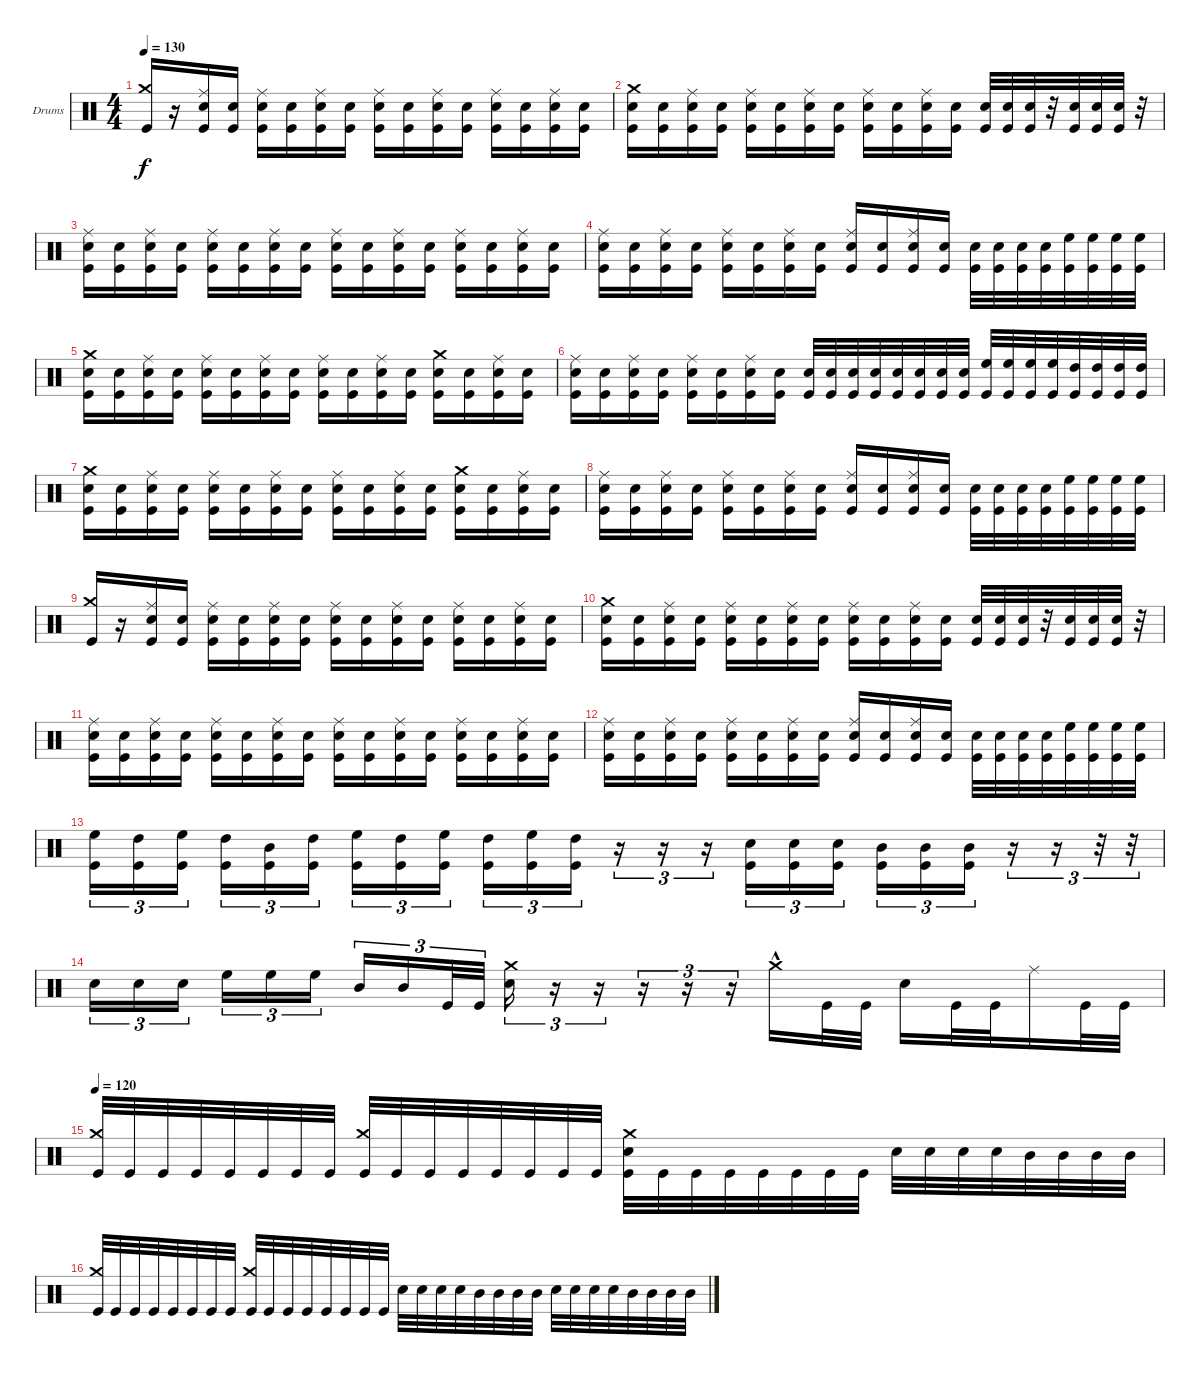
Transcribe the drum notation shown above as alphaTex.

\defaultSystemsLayout 4
\bracketExtendMode groupsimilarinstruments
\firstSystemTrackNameOrientation horizontal
\otherSystemsTrackNameOrientation horizontal
\track ("Drumkit" "Drums") {instrument percussion}
\staff {score}
\articulation defaults
\ts (4 4)
\tempo 130
\clef neutral
\scale
0.474178
\ks c
("Crash medium (hit)" "Kick (hit)").16{dy f beam invert} r.16 ("Kick (hit)" "Snare (hit) 2" "Ride (middle)").16 ("Kick (hit)" "Snare (hit) 2").16 ("Ride (middle)" "Snare (hit) 2" "Kick (hit)").16 ("Snare (hit) 2" "Kick (hit)").16 ("Snare (hit) 2" "Ride (middle)" "Kick (hit)").16 ("Snare (hit) 2" "Kick (hit)").16 ("Ride (middle)" "Snare (hit) 2" "Kick (hit)").16 ("Snare (hit) 2" "Kick (hit)").16 ("Snare (hit) 2" "Ride (middle)" "Kick (hit)").16 ("Snare (hit) 2" "Kick (hit)").16 ("Ride (middle)" "Snare (hit) 2" "Kick (hit)").16 ("Snare (hit) 2" "Kick (hit)").16 ("Snare (hit) 2" "Ride (middle)" "Kick (hit)").16 ("Snare (hit) 2" "Kick (hit)").16 |
\scale
0.262911 ("Snare (hit) 2" "Kick (hit)" "Crash medium (hit)").16 ("Snare (hit) 2" "Kick (hit)").16 ("Snare (hit) 2" "Ride (middle)" "Kick (hit)").16 ("Snare (hit) 2" "Kick (hit)").16 ("Ride (middle)" "Snare (hit) 2" "Kick (hit)").16 ("Snare (hit) 2" "Kick (hit)").16 ("Snare (hit) 2" "Ride (middle)" "Kick (hit)").16 ("Snare (hit) 2" "Kick (hit)").16 ("Ride (middle)" "Snare (hit) 2" "Kick (hit)").16 ("Snare (hit) 2" "Kick (hit)").16 ("Snare (hit) 2" "Ride (middle)" "Kick (hit)").16 ("Snare (hit) 2" "Kick (hit)").16 ("Snare (hit) 2" "Kick (hit)").32 ("Snare (hit) 2" "Kick (hit)").32 ("Snare (hit) 2" "Kick (hit)").32 r.32 ("Kick (hit)" "Snare (hit) 2").32 ("Kick (hit)" "Snare (hit) 2").32 ("Kick (hit)" "Snare (hit) 2").32 r.32 |
\scale
0.262911 ("Ride (middle)" "Snare (hit) 2" "Kick (hit)").16 ("Snare (hit) 2" "Kick (hit)").16 ("Snare (hit) 2" "Ride (middle)" "Kick (hit)").16 ("Snare (hit) 2" "Kick (hit)").16 ("Ride (middle)" "Snare (hit) 2" "Kick (hit)").16 ("Snare (hit) 2" "Kick (hit)").16 ("Snare (hit) 2" "Ride (middle)" "Kick (hit)").16 ("Snare (hit) 2" "Kick (hit)").16 ("Ride (middle)" "Snare (hit) 2" "Kick (hit)").16 ("Snare (hit) 2" "Kick (hit)").16 ("Snare (hit) 2" "Ride (middle)" "Kick (hit)").16 ("Snare (hit) 2" "Kick (hit)").16 ("Ride (middle)" "Snare (hit) 2" "Kick (hit)").16 ("Snare (hit) 2" "Kick (hit)").16 ("Snare (hit) 2" "Ride (middle)" "Kick (hit)").16 ("Snare (hit) 2" "Kick (hit)").16 |
\scale
0.333333 ("Ride (middle)" "Snare (hit) 2" "Kick (hit)").16 ("Snare (hit) 2" "Kick (hit)").16 ("Snare (hit) 2" "Ride (middle)" "Kick (hit)").16 ("Snare (hit) 2" "Kick (hit)").16 ("Ride (middle)" "Snare (hit) 2" "Kick (hit)").16 ("Snare (hit) 2" "Kick (hit)").16 ("Snare (hit) 2" "Ride (middle)" "Kick (hit)").16 ("Snare (hit) 2" "Kick (hit)").16 ("Ride (middle)" "Snare (hit) 2" "Kick (hit)").16 ("Snare (hit) 2" "Kick (hit)").16 ("Snare (hit) 2" "Ride (middle)" "Kick (hit)").16 ("Snare (hit) 2" "Kick (hit)").16 ("Snare (hit) 2" "Kick (hit)").32{beam invert} ("Snare (hit) 2" "Kick (hit)").32 ("Snare (hit) 2" "Kick (hit)").32 ("Snare (hit) 2" "Kick (hit)").32 ("High Floor Tom (hit)" "Kick (hit)").32 ("High Floor Tom (hit)" "Kick (hit)").32 ("High Floor Tom (hit)" "Kick (hit)").32 ("High Floor Tom (hit)" "Kick (hit)").32 |
\scale
0.333333 ("Snare (hit) 2" "Kick (hit)" "Crash medium (hit)").16 ("Snare (hit) 2" "Kick (hit)").16 ("Snare (hit) 2" "Ride (middle)" "Kick (hit)").16 ("Snare (hit) 2" "Kick (hit)").16 ("Ride (middle)" "Snare (hit) 2" "Kick (hit)").16 ("Snare (hit) 2" "Kick (hit)").16 ("Snare (hit) 2" "Ride (middle)" "Kick (hit)").16 ("Snare (hit) 2" "Kick (hit)").16 ("Ride (middle)" "Snare (hit) 2" "Kick (hit)").16 ("Snare (hit) 2" "Kick (hit)").16 ("Snare (hit) 2" "Ride (middle)" "Kick (hit)").16 ("Snare (hit) 2" "Kick (hit)").16 ("Snare (hit) 2" "Kick (hit)" "Crash medium (hit)").16 ("Snare (hit) 2" "Kick (hit)").16 ("Snare (hit) 2" "Ride (middle)" "Kick (hit)").16 ("Snare (hit) 2" "Kick (hit)").16 |
\scale
0.333333 ("Ride (middle)" "Snare (hit) 2" "Kick (hit)").16 ("Snare (hit) 2" "Kick (hit)").16 ("Snare (hit) 2" "Ride (middle)" "Kick (hit)").16 ("Snare (hit) 2" "Kick (hit)").16 ("Ride (middle)" "Snare (hit) 2" "Kick (hit)").16 ("Snare (hit) 2" "Kick (hit)").16 ("Snare (hit) 2" "Ride (middle)" "Kick (hit)").16 ("Snare (hit) 2" "Kick (hit)").16 ("Snare (hit) 2" "Kick (hit)").32 ("Snare (hit) 2" "Kick (hit)").32 ("Snare (hit) 2" "Kick (hit)").32 ("Snare (hit) 2" "Kick (hit)").32 ("Snare (hit) 2" "Kick (hit)").32 ("Snare (hit) 2" "Kick (hit)").32 ("Snare (hit) 2" "Kick (hit)").32 ("Snare (hit) 2" "Kick (hit)").32 ("High Floor Tom (hit)" "Kick (hit)").32 ("High Floor Tom (hit)" "Kick (hit)").32 ("High Floor Tom (hit)" "Kick (hit)").32 ("High Floor Tom (hit)" "Kick (hit)").32 ("High Tom (hit)" "Kick (hit)").32 ("High Tom (hit)" "Kick (hit)").32 ("High Tom (hit)" "Kick (hit)").32 ("High Tom (hit)" "Kick (hit)").32 |
\scale
0.333333 ("Snare (hit) 2" "Kick (hit)" "Crash medium (hit)").16 ("Snare (hit) 2" "Kick (hit)").16 ("Snare (hit) 2" "Ride (middle)" "Kick (hit)").16 ("Snare (hit) 2" "Kick (hit)").16 ("Ride (middle)" "Snare (hit) 2" "Kick (hit)").16 ("Snare (hit) 2" "Kick (hit)").16 ("Snare (hit) 2" "Ride (middle)" "Kick (hit)").16 ("Snare (hit) 2" "Kick (hit)").16 ("Ride (middle)" "Snare (hit) 2" "Kick (hit)").16 ("Snare (hit) 2" "Kick (hit)").16 ("Snare (hit) 2" "Ride (middle)" "Kick (hit)").16 ("Snare (hit) 2" "Kick (hit)").16 ("Snare (hit) 2" "Kick (hit)" "Crash medium (hit)").16 ("Snare (hit) 2" "Kick (hit)").16 ("Snare (hit) 2" "Ride (middle)" "Kick (hit)").16 ("Snare (hit) 2" "Kick (hit)").16 |
\scale
0.333333 ("Ride (middle)" "Snare (hit) 2" "Kick (hit)").16 ("Snare (hit) 2" "Kick (hit)").16 ("Snare (hit) 2" "Ride (middle)" "Kick (hit)").16 ("Snare (hit) 2" "Kick (hit)").16 ("Ride (middle)" "Snare (hit) 2" "Kick (hit)").16 ("Snare (hit) 2" "Kick (hit)").16 ("Snare (hit) 2" "Ride (middle)" "Kick (hit)").16 ("Snare (hit) 2" "Kick (hit)").16 ("Ride (middle)" "Snare (hit) 2" "Kick (hit)").16 ("Snare (hit) 2" "Kick (hit)").16 ("Snare (hit) 2" "Ride (middle)" "Kick (hit)").16 ("Snare (hit) 2" "Kick (hit)").16 ("Snare (hit) 2" "Kick (hit)").32{beam invert} ("Snare (hit) 2" "Kick (hit)").32 ("Snare (hit) 2" "Kick (hit)").32 ("Snare (hit) 2" "Kick (hit)").32 ("High Floor Tom (hit)" "Kick (hit)").32 ("High Floor Tom (hit)" "Kick (hit)").32 ("High Floor Tom (hit)" "Kick (hit)").32 ("High Floor Tom (hit)" "Kick (hit)").32 |
\scale
0.333333 ("Crash medium (hit)" "Kick (hit)").16{beam invert} r.16 ("Kick (hit)" "Snare (hit) 2" "Ride (middle)").16 ("Kick (hit)" "Snare (hit) 2").16 ("Ride (middle)" "Snare (hit) 2" "Kick (hit)").16 ("Snare (hit) 2" "Kick (hit)").16 ("Snare (hit) 2" "Ride (middle)" "Kick (hit)").16 ("Snare (hit) 2" "Kick (hit)").16 ("Ride (middle)" "Snare (hit) 2" "Kick (hit)").16 ("Snare (hit) 2" "Kick (hit)").16 ("Snare (hit) 2" "Ride (middle)" "Kick (hit)").16 ("Snare (hit) 2" "Kick (hit)").16 ("Ride (middle)" "Snare (hit) 2" "Kick (hit)").16 ("Snare (hit) 2" "Kick (hit)").16 ("Snare (hit) 2" "Ride (middle)" "Kick (hit)").16 ("Snare (hit) 2" "Kick (hit)").16 |
\scale
0.333333 ("Snare (hit) 2" "Kick (hit)" "Crash medium (hit)").16 ("Snare (hit) 2" "Kick (hit)").16 ("Snare (hit) 2" "Ride (middle)" "Kick (hit)").16 ("Snare (hit) 2" "Kick (hit)").16 ("Ride (middle)" "Snare (hit) 2" "Kick (hit)").16 ("Snare (hit) 2" "Kick (hit)").16 ("Snare (hit) 2" "Ride (middle)" "Kick (hit)").16 ("Snare (hit) 2" "Kick (hit)").16 ("Ride (middle)" "Snare (hit) 2" "Kick (hit)").16 ("Snare (hit) 2" "Kick (hit)").16 ("Snare (hit) 2" "Ride (middle)" "Kick (hit)").16 ("Snare (hit) 2" "Kick (hit)").16 ("Snare (hit) 2" "Kick (hit)").32 ("Snare (hit) 2" "Kick (hit)").32 ("Snare (hit) 2" "Kick (hit)").32 r.32 ("Kick (hit)" "Snare (hit) 2").32 ("Kick (hit)" "Snare (hit) 2").32 ("Kick (hit)" "Snare (hit) 2").32 r.32 |
\scale
0.333333 ("Ride (middle)" "Snare (hit) 2" "Kick (hit)").16 ("Snare (hit) 2" "Kick (hit)").16 ("Snare (hit) 2" "Ride (middle)" "Kick (hit)").16 ("Snare (hit) 2" "Kick (hit)").16 ("Ride (middle)" "Snare (hit) 2" "Kick (hit)").16 ("Snare (hit) 2" "Kick (hit)").16 ("Snare (hit) 2" "Ride (middle)" "Kick (hit)").16 ("Snare (hit) 2" "Kick (hit)").16 ("Ride (middle)" "Snare (hit) 2" "Kick (hit)").16 ("Snare (hit) 2" "Kick (hit)").16 ("Snare (hit) 2" "Ride (middle)" "Kick (hit)").16 ("Snare (hit) 2" "Kick (hit)").16 ("Ride (middle)" "Snare (hit) 2" "Kick (hit)").16 ("Snare (hit) 2" "Kick (hit)").16 ("Snare (hit) 2" "Ride (middle)" "Kick (hit)").16 ("Snare (hit) 2" "Kick (hit)").16 |
\scale
0.333333 ("Ride (middle)" "Snare (hit) 2" "Kick (hit)").16 ("Snare (hit) 2" "Kick (hit)").16 ("Snare (hit) 2" "Ride (middle)" "Kick (hit)").16 ("Snare (hit) 2" "Kick (hit)").16 ("Ride (middle)" "Snare (hit) 2" "Kick (hit)").16 ("Snare (hit) 2" "Kick (hit)").16 ("Snare (hit) 2" "Ride (middle)" "Kick (hit)").16 ("Snare (hit) 2" "Kick (hit)").16 ("Ride (middle)" "Snare (hit) 2" "Kick (hit)").16 ("Snare (hit) 2" "Kick (hit)").16 ("Snare (hit) 2" "Ride (middle)" "Kick (hit)").16 ("Snare (hit) 2" "Kick (hit)").16 ("Snare (hit) 2" "Kick (hit)").32{beam invert} ("Snare (hit) 2" "Kick (hit)").32 ("Snare (hit) 2" "Kick (hit)").32 ("Snare (hit) 2" "Kick (hit)").32 ("High Floor Tom (hit)" "Kick (hit)").32 ("High Floor Tom (hit)" "Kick (hit)").32 ("High Floor Tom (hit)" "Kick (hit)").32 ("High Floor Tom (hit)" "Kick (hit)").32 |
\scale
0.333333 ("High Floor Tom (hit)" "Kick (hit)").16{tu (3 2) beam invert} ("High Tom (hit)" "Kick (hit)").16{tu (3 2)} ("High Floor Tom (hit)" "Kick (hit)").16{tu (3 2)} ("High Tom (hit)" "Kick (hit)").16{tu (3 2) beam invert} ("Mid Tom (hit)" "Kick (hit)").16{tu (3 2)} ("High Tom (hit)" "Kick (hit)").16{tu (3 2)} ("High Floor Tom (hit)" "Kick (hit)").16{tu (3 2) beam invert} ("High Tom (hit)" "Kick (hit)").16{tu (3 2)} ("High Floor Tom (hit)" "Kick (hit)").16{tu (3 2)} ("High Tom (hit)" "Kick (hit)").16{tu (3 2) beam invert} ("High Floor Tom (hit)" "Kick (hit)").16{tu (3 2)} ("High Tom (hit)" "Kick (hit)").16{tu (3 2)} r.16{tu (3 2) beam invert} r.16{tu (3 2) beam invert} r.16{tu (3 2) beam invert} ("Kick (hit)" "Snare (hit) 2").16{tu (3 2) beam invert} ("Kick (hit)" "Snare (hit) 2").16{tu (3 2)} ("Kick (hit)" "Snare (hit) 2").16{tu (3 2)} ("Mid Tom (hit)" "Kick (hit)").16{tu (3 2) beam invert} ("Mid Tom (hit)" "Kick (hit)").16{tu (3 2)} ("Mid Tom (hit)" "Kick (hit)").16{tu (3 2)} r.16{tu (3 2) beam invert} r.16{tu (3 2) beam invert} r.32{tu (3 2) beam invert} r.32{tu (3 2) beam invert} |
\scale
0.333333 "Snare (hit) 2".16{tu (3 2)} "Snare (hit) 2".16{tu (3 2)} "Snare (hit) 2".16{tu (3 2)} "High Floor Tom (hit)".16{tu (3 2)} "High Floor Tom (hit)".16{tu (3 2)} "High Floor Tom (hit)".16{tu (3 2)} "Mid Tom (hit)".16{tu (3 2)} "Mid Tom (hit)".16{tu (3 2)} "Kick (hit)".32{tu (3 2)} "Kick (hit)".32{tu (3 2)} ("Snare (hit) 2" "Crash medium (hit)").16{tu (3 2)} r.16{tu (3 2)} r.16{tu (3 2)} r.16{tu (3 2)} r.16{tu (3 2)} r.16{tu (3 2)} "Crash medium (hit)"{hac}.16 "Kick (hit)".32 "Kick (hit)".32 "Snare (hit) 2".16 "Kick (hit)".32 "Kick (hit)".32 "Ride (middle)".16 "Kick (hit)".32 "Kick (hit)".32 |
\tempo 120
\scale
0.333333 ("Crash medium (hit)" "Kick (hit)").32{beam invert} "Kick (hit)".32 "Kick (hit)".32 "Kick (hit)".32 "Kick (hit)".32 "Kick (hit)".32 "Kick (hit)".32 "Kick (hit)".32 ("Kick (hit)" "Crash medium (hit)").32{beam invert} "Kick (hit)".32 "Kick (hit)".32 "Kick (hit)".32 "Kick (hit)".32 "Kick (hit)".32 "Kick (hit)".32 "Kick (hit)".32 ("Kick (hit)" "Snare (hit) 2" "Crash medium (hit)").32 "Kick (hit)".32 "Kick (hit)".32 "Kick (hit)".32 "Kick (hit)".32 "Kick (hit)".32 "Kick (hit)".32 "Kick (hit)".32 "Snare (hit) 2".32 "Snare (hit) 2".32 "Snare (hit) 2".32 "Snare (hit) 2".32 "Mid Tom (hit)".32 "Mid Tom (hit)".32 "Mid Tom (hit)".32 "Mid Tom (hit)".32 |
\scale
0.333333 ("Crash medium (hit)" "Kick (hit)").32{beam invert} "Kick (hit)".32 "Kick (hit)".32 "Kick (hit)".32 "Kick (hit)".32 "Kick (hit)".32 "Kick (hit)".32 "Kick (hit)".32 ("Kick (hit)" "Crash medium (hit)").32{beam invert} "Kick (hit)".32 "Kick (hit)".32 "Kick (hit)".32 "Kick (hit)".32 "Kick (hit)".32 "Kick (hit)".32 "Kick (hit)".32 "Snare (hit) 2".32 "Snare (hit) 2".32 "Snare (hit) 2".32 "Snare (hit) 2".32 "Mid Tom (hit)".32 "Mid Tom (hit)".32 "Mid Tom (hit)".32 "Mid Tom (hit)".32 "Snare (hit) 2".32 "Snare (hit) 2".32 "Snare (hit) 2".32 "Snare (hit) 2".32 "Mid Tom (hit)".32 "Mid Tom (hit)".32 "Mid Tom (hit)".32 "Mid Tom (hit)".32
